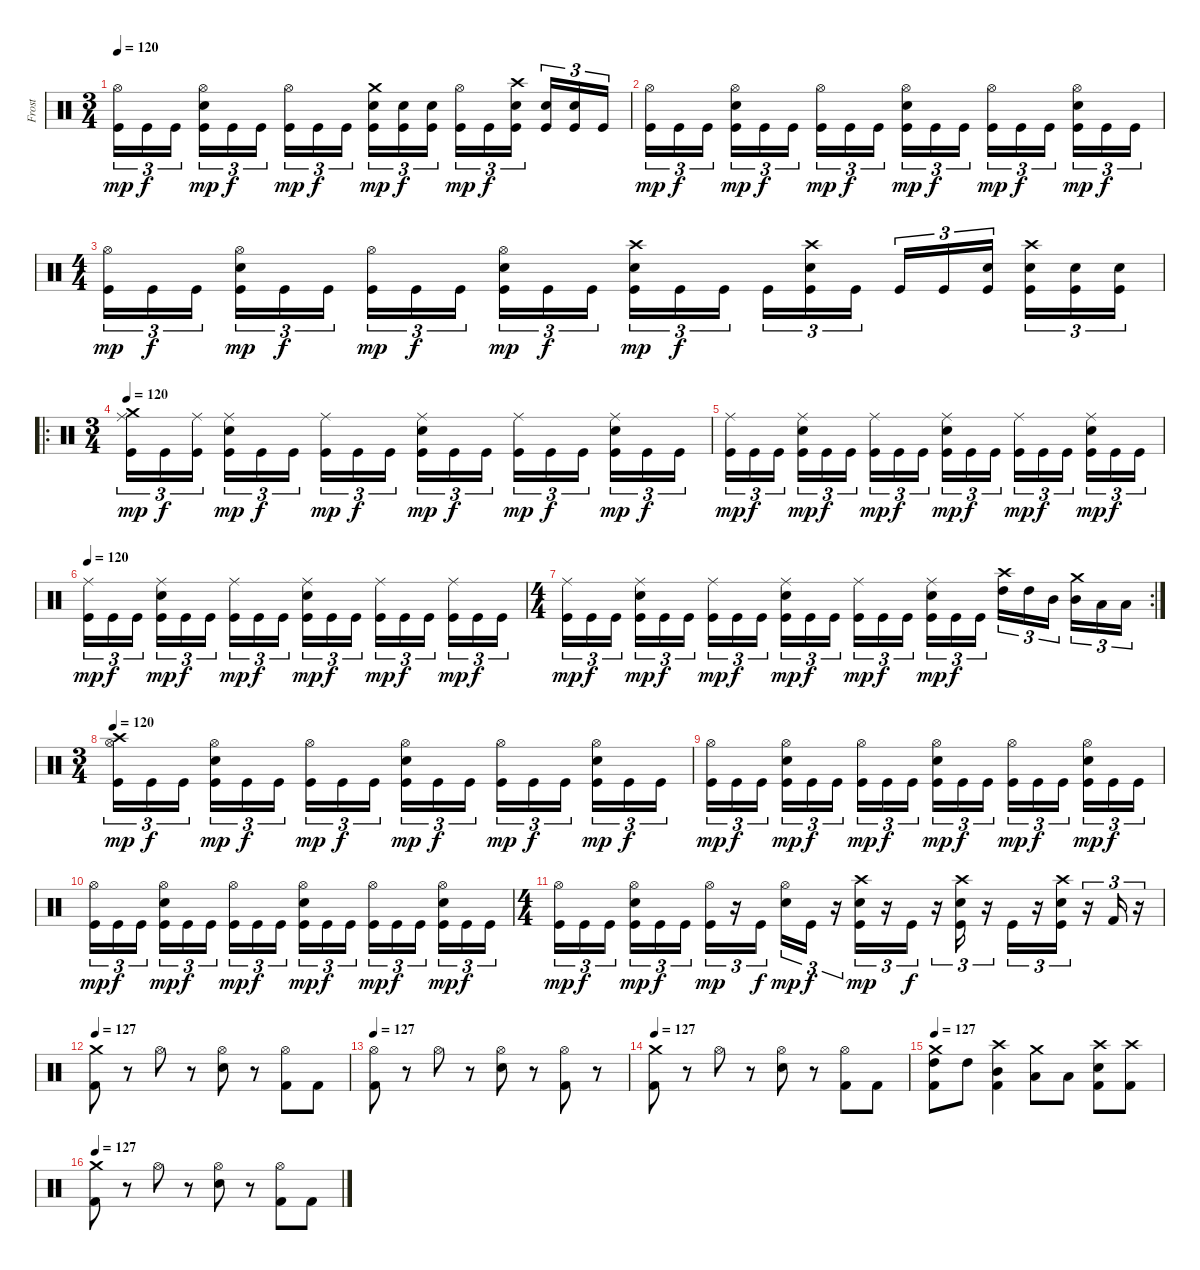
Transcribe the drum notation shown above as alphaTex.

\track ("Frost" "Frost") {instrument percussion}
\staff {score}
\articulation defaults
\ts (3 4)
\tempo 120
\clef neutral
\ks c
("Hi-Hat (open)" "Kick (hit)").16{tu (3 2) dy mp} "Kick (hit)".16{tu (3 2) dy f} "Kick (hit)".16{tu (3 2)} ("Hi-Hat (open)" "Electric Snare (hit)" "Kick (hit)").16{tu (3 2) dy mp} "Kick (hit)".16{tu (3 2) dy f} "Kick (hit)".16{tu (3 2)} ("Hi-Hat (open)" "Kick (hit)").16{tu (3 2) dy mp} "Kick (hit)".16{tu (3 2) dy f} "Kick (hit)".16{tu (3 2)} ("Crash medium (hit)" "Electric Snare (hit)" "Kick (hit)").16{tu (3 2) dy mp} ("Electric Snare (hit)" "Kick (hit)").16{tu (3 2) dy f} ("Electric Snare (hit)" "Kick (hit)").16{tu (3 2)} ("Hi-Hat (open)" "Kick (hit)").16{tu (3 2) dy mp} "Kick (hit)".16{tu (3 2) dy f} ("Crash high (hit)" "Electric Snare (hit)" "Kick (hit)").16{tu (3 2)} ("Electric Snare (hit)" "Kick (hit)").16{tu (3 2)} ("Electric Snare (hit)" "Kick (hit)").16{tu (3 2)} "Kick (hit)".16{tu (3 2)} |
("Hi-Hat (open)" "Kick (hit)").16{tu (3 2) dy mp} "Kick (hit)".16{tu (3 2) dy f} "Kick (hit)".16{tu (3 2)} ("Hi-Hat (open)" "Electric Snare (hit)" "Kick (hit)").16{tu (3 2) dy mp} "Kick (hit)".16{tu (3 2) dy f} "Kick (hit)".16{tu (3 2)} ("Hi-Hat (open)" "Kick (hit)").16{tu (3 2) dy mp} "Kick (hit)".16{tu (3 2) dy f} "Kick (hit)".16{tu (3 2)} ("Hi-Hat (open)" "Electric Snare (hit)" "Kick (hit)").16{tu (3 2) dy mp} "Kick (hit)".16{tu (3 2) dy f} "Kick (hit)".16{tu (3 2)} ("Hi-Hat (open)" "Kick (hit)").16{tu (3 2) dy mp} "Kick (hit)".16{tu (3 2) dy f} "Kick (hit)".16{tu (3 2)} ("Hi-Hat (open)" "Electric Snare (hit)" "Kick (hit)").16{tu (3 2) dy mp} "Kick (hit)".16{tu (3 2) dy f} "Kick (hit)".16{tu (3 2)} |
\ts (4 4)
("Hi-Hat (open)" "Kick (hit)").16{tu (3 2) dy mp} "Kick (hit)".16{tu (3 2) dy f} "Kick (hit)".16{tu (3 2)} ("Hi-Hat (open)" "Electric Snare (hit)" "Kick (hit)").16{tu (3 2) dy mp} "Kick (hit)".16{tu (3 2) dy f} "Kick (hit)".16{tu (3 2)} ("Hi-Hat (open)" "Kick (hit)").16{tu (3 2) dy mp} "Kick (hit)".16{tu (3 2) dy f} "Kick (hit)".16{tu (3 2)} ("Hi-Hat (open)" "Electric Snare (hit)" "Kick (hit)").16{tu (3 2) dy mp} "Kick (hit)".16{tu (3 2) dy f} "Kick (hit)".16{tu (3 2)} ("Crash high (hit)" "Electric Snare (hit)" "Kick (hit)").16{tu (3 2) dy mp} "Kick (hit)".16{tu (3 2) dy f} "Kick (hit)".16{tu (3 2)} "Kick (hit)".16{tu (3 2)} ("Crash high (hit)" "Electric Snare (hit)" "Kick (hit)").16{tu (3 2)} "Kick (hit)".16{tu (3 2)} "Kick (hit)".16{tu (3 2)} "Kick (hit)".16{tu (3 2)} ("Electric Snare (hit)" "Kick (hit)").16{tu (3 2)} ("Crash high (hit)" "Electric Snare (hit)" "Kick (hit)").16{tu (3 2)} ("Electric Snare (hit)" "Kick (hit)").16{tu (3 2)} ("Electric Snare (hit)" "Kick (hit)").16{tu (3 2)} |
\ro
\ts (3 4)
\tempo 120
("Crash medium (hit)" "Ride (middle)" "Kick (hit)").16{tu (3 2) dy mp} "Kick (hit)".16{tu (3 2) dy f} ("Ride (middle)" "Kick (hit)").16{tu (3 2)} ("Ride (middle)" "Electric Snare (hit)" "Kick (hit)").16{tu (3 2) dy mp} "Kick (hit)".16{tu (3 2) dy f} "Kick (hit)".16{tu (3 2)} ("Ride (middle)" "Kick (hit)").16{tu (3 2) dy mp} "Kick (hit)".16{tu (3 2) dy f} "Kick (hit)".16{tu (3 2)} ("Ride (middle)" "Electric Snare (hit)" "Kick (hit)").16{tu (3 2) dy mp} "Kick (hit)".16{tu (3 2) dy f} "Kick (hit)".16{tu (3 2)} ("Ride (middle)" "Kick (hit)").16{tu (3 2) dy mp} "Kick (hit)".16{tu (3 2) dy f} "Kick (hit)".16{tu (3 2)} ("Ride (middle)" "Electric Snare (hit)" "Kick (hit)").16{tu (3 2) dy mp} "Kick (hit)".16{tu (3 2) dy f} "Kick (hit)".16{tu (3 2)} |
("Ride (middle)" "Kick (hit)").16{tu (3 2) dy mp} "Kick (hit)".16{tu (3 2) dy f} "Kick (hit)".16{tu (3 2)} ("Ride (middle)" "Electric Snare (hit)" "Kick (hit)").16{tu (3 2) dy mp} "Kick (hit)".16{tu (3 2) dy f} "Kick (hit)".16{tu (3 2)} ("Ride (middle)" "Kick (hit)").16{tu (3 2) dy mp} "Kick (hit)".16{tu (3 2) dy f} "Kick (hit)".16{tu (3 2)} ("Ride (middle)" "Electric Snare (hit)" "Kick (hit)").16{tu (3 2) dy mp} "Kick (hit)".16{tu (3 2) dy f} "Kick (hit)".16{tu (3 2)} ("Ride (middle)" "Kick (hit)").16{tu (3 2) dy mp} "Kick (hit)".16{tu (3 2) dy f} "Kick (hit)".16{tu (3 2)} ("Ride (middle)" "Electric Snare (hit)" "Kick (hit)").16{tu (3 2) dy mp} "Kick (hit)".16{tu (3 2) dy f} "Kick (hit)".16{tu (3 2)} |
\tempo 120
("Ride (middle)" "Kick (hit)").16{tu (3 2) dy mp} "Kick (hit)".16{tu (3 2) dy f} "Kick (hit)".16{tu (3 2)} ("Ride (middle)" "Electric Snare (hit)" "Kick (hit)").16{tu (3 2) dy mp} "Kick (hit)".16{tu (3 2) dy f} "Kick (hit)".16{tu (3 2)} ("Ride (middle)" "Kick (hit)").16{tu (3 2) dy mp} "Kick (hit)".16{tu (3 2) dy f} "Kick (hit)".16{tu (3 2)} ("Ride (middle)" "Electric Snare (hit)" "Kick (hit)").16{tu (3 2) dy mp} "Kick (hit)".16{tu (3 2) dy f} "Kick (hit)".16{tu (3 2)} ("Ride (middle)" "Kick (hit)").16{tu (3 2) dy mp} "Kick (hit)".16{tu (3 2) dy f} "Kick (hit)".16{tu (3 2)} ("Ride (middle)" "Kick (hit)").16{tu (3 2) dy mp} "Kick (hit)".16{tu (3 2) dy f} "Kick (hit)".16{tu (3 2)} |
\rc 2
\ts (4 4)
("Ride (middle)" "Kick (hit)").16{tu (3 2) dy mp} "Kick (hit)".16{tu (3 2) dy f} "Kick (hit)".16{tu (3 2)} ("Ride (middle)" "Electric Snare (hit)" "Kick (hit)").16{tu (3 2) dy mp} "Kick (hit)".16{tu (3 2) dy f} "Kick (hit)".16{tu (3 2)} ("Ride (middle)" "Kick (hit)").16{tu (3 2) dy mp} "Kick (hit)".16{tu (3 2) dy f} "Kick (hit)".16{tu (3 2)} ("Ride (middle)" "Electric Snare (hit)" "Kick (hit)").16{tu (3 2) dy mp} "Kick (hit)".16{tu (3 2) dy f} "Kick (hit)".16{tu (3 2)} ("Ride (middle)" "Kick (hit)").16{tu (3 2) dy mp} "Kick (hit)".16{tu (3 2) dy f} "Kick (hit)".16{tu (3 2)} ("Ride (middle)" "Electric Snare (hit)" "Kick (hit)").16{tu (3 2) dy mp} "Kick (hit)".16{tu (3 2) dy f} "Kick (hit)".16{tu (3 2)} ("Crash high (hit)" "High Tom (hit)").16{tu (3 2)} "High Tom (hit)".16{tu (3 2)} "Mid Tom (hit)".16{tu (3 2)} ("Crash medium (hit)" "Mid Tom (hit)").16{tu (3 2)} "Low Tom (hit)".16{tu (3 2)} "Low Tom (hit)".16{tu (3 2)} |
\ts (3 4)
\tempo 120
("Crash high (hit)" "Hi-Hat (open)" "Kick (hit)").16{tu (3 2) dy mp} "Kick (hit)".16{tu (3 2) dy f} "Kick (hit)".16{tu (3 2)} ("Hi-Hat (open)" "Electric Snare (hit)" "Kick (hit)").16{tu (3 2) dy mp} "Kick (hit)".16{tu (3 2) dy f} "Kick (hit)".16{tu (3 2)} ("Hi-Hat (open)" "Kick (hit)").16{tu (3 2) dy mp} "Kick (hit)".16{tu (3 2) dy f} "Kick (hit)".16{tu (3 2)} ("Hi-Hat (open)" "Electric Snare (hit)" "Kick (hit)").16{tu (3 2) dy mp} "Kick (hit)".16{tu (3 2) dy f} "Kick (hit)".16{tu (3 2)} ("Hi-Hat (open)" "Kick (hit)").16{tu (3 2) dy mp} "Kick (hit)".16{tu (3 2) dy f} "Kick (hit)".16{tu (3 2)} ("Hi-Hat (open)" "Electric Snare (hit)" "Kick (hit)").16{tu (3 2) dy mp} "Kick (hit)".16{tu (3 2) dy f} "Kick (hit)".16{tu (3 2)} |
("Hi-Hat (open)" "Kick (hit)").16{tu (3 2) dy mp} "Kick (hit)".16{tu (3 2) dy f} "Kick (hit)".16{tu (3 2)} ("Hi-Hat (open)" "Electric Snare (hit)" "Kick (hit)").16{tu (3 2) dy mp} "Kick (hit)".16{tu (3 2) dy f} "Kick (hit)".16{tu (3 2)} ("Hi-Hat (open)" "Kick (hit)").16{tu (3 2) dy mp} "Kick (hit)".16{tu (3 2) dy f} "Kick (hit)".16{tu (3 2)} ("Hi-Hat (open)" "Electric Snare (hit)" "Kick (hit)").16{tu (3 2) dy mp} "Kick (hit)".16{tu (3 2) dy f} "Kick (hit)".16{tu (3 2)} ("Hi-Hat (open)" "Kick (hit)").16{tu (3 2) dy mp} "Kick (hit)".16{tu (3 2) dy f} "Kick (hit)".16{tu (3 2)} ("Hi-Hat (open)" "Electric Snare (hit)" "Kick (hit)").16{tu (3 2) dy mp} "Kick (hit)".16{tu (3 2) dy f} "Kick (hit)".16{tu (3 2)} |
("Hi-Hat (open)" "Kick (hit)").16{tu (3 2) dy mp} "Kick (hit)".16{tu (3 2) dy f} "Kick (hit)".16{tu (3 2)} ("Hi-Hat (open)" "Electric Snare (hit)" "Kick (hit)").16{tu (3 2) dy mp} "Kick (hit)".16{tu (3 2) dy f} "Kick (hit)".16{tu (3 2)} ("Hi-Hat (open)" "Kick (hit)").16{tu (3 2) dy mp} "Kick (hit)".16{tu (3 2) dy f} "Kick (hit)".16{tu (3 2)} ("Hi-Hat (open)" "Electric Snare (hit)" "Kick (hit)").16{tu (3 2) dy mp} "Kick (hit)".16{tu (3 2) dy f} "Kick (hit)".16{tu (3 2)} ("Hi-Hat (open)" "Kick (hit)").16{tu (3 2) dy mp} "Kick (hit)".16{tu (3 2) dy f} "Kick (hit)".16{tu (3 2)} ("Hi-Hat (open)" "Electric Snare (hit)" "Kick (hit)").16{tu (3 2) dy mp} "Kick (hit)".16{tu (3 2) dy f} "Kick (hit)".16{tu (3 2)} |
\ts (4 4)
("Hi-Hat (open)" "Kick (hit)").16{tu (3 2) dy mp} "Kick (hit)".16{tu (3 2) dy f} "Kick (hit)".16{tu (3 2)} ("Hi-Hat (open)" "Electric Snare (hit)" "Kick (hit)").16{tu (3 2) dy mp} "Kick (hit)".16{tu (3 2) dy f} "Kick (hit)".16{tu (3 2)} ("Hi-Hat (open)" "Kick (hit)").16{tu (3 2) dy mp} r.16{tu (3 2)} "Kick (hit)".16{tu (3 2) dy f} ("Hi-Hat (open)" "Electric Snare (hit)").16{tu (3 2) dy mp} "Kick (hit)".16{tu (3 2) dy f} r.16{tu (3 2)} ("Crash high (hit)" "Electric Snare (hit)" "Kick (hit)").16{tu (3 2) dy mp} r.16{tu (3 2)} "Kick (hit)".16{tu (3 2) dy f} r.16{tu (3 2)} ("Crash high (hit)" "Electric Snare (hit)" "Kick (hit)").16{tu (3 2)} r.16{tu (3 2)} "Kick (hit)".16{tu (3 2)} r.16{tu (3 2)} ("Crash high (hit)" "Electric Snare (hit)" "Kick (hit)").16{tu (3 2)} r.16{tu (3 2)} "Kick (hit) 2".16{tu (3 2)} r.16{tu (3 2)} |
\tempo 127
("Crash medium (hit)" "Kick (hit) 2").8 r.8 "Hi-Hat (open)".8 r.8 ("Hi-Hat (open)" "Electric Snare (hit)").8 r.8 ("Hi-Hat (open)" "Kick (hit) 2").8 "Kick (hit) 2".8 |
\tempo 127
("Hi-Hat (open)" "Kick (hit) 2").8 r.8 "Hi-Hat (open)".8 r.8 ("Hi-Hat (open)" "Electric Snare (hit)").8 r.8 ("Hi-Hat (open)" "Kick (hit) 2").8 r.8 |
\tempo 127
("Crash medium (hit)" "Kick (hit) 2").8 r.8 "Hi-Hat (open)".8 r.8 ("Hi-Hat (open)" "Electric Snare (hit)").8 r.8 ("Hi-Hat (open)" "Kick (hit) 2").8 "Kick (hit) 2".8 |
\tempo 127
("Crash medium (hit)" "High Tom (hit)" "Kick (hit) 2").8 "High Tom (hit)".8 ("Crash high (hit)" "Mid Tom (hit)" "Kick (hit) 2").4 ("Crash medium (hit)" "Low Tom (hit)").8 "Low Tom (hit)".8 ("Crash high (hit)" "Electric Snare (hit)" "Kick (hit) 2").8 ("Crash high (hit)" "Kick (hit) 2").8 |
\tempo 127
("Crash medium (hit)" "Kick (hit) 2").8 r.8 "Hi-Hat (open)".8 r.8 ("Hi-Hat (open)" "Electric Snare (hit)").8 r.8 ("Hi-Hat (open)" "Kick (hit) 2").8 "Kick (hit) 2".8
